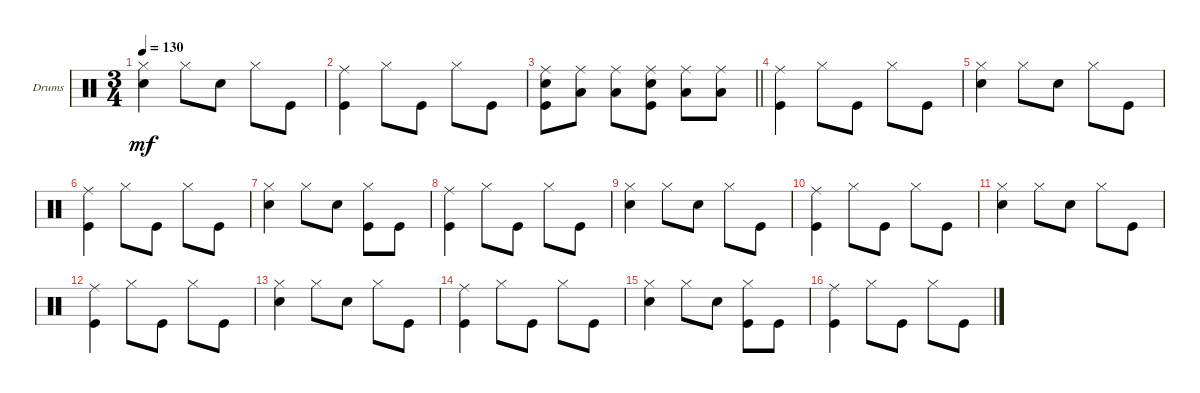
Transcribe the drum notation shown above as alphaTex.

\defaultSystemsLayout 4
\bracketExtendMode groupsimilarinstruments
\firstSystemTrackNameOrientation horizontal
\otherSystemsTrackNameOrientation horizontal
\chordDiagramsInScore
\track ("Drumkit" "Drums") {instrument percussion}
\staff {score}
\articulation defaults
\ts (3 4)
\tempo 130
\clef neutral
\ks c
("Hi-Hat (closed)" "Snare (hit) 2").4{dy mf} "Hi-Hat (closed)".8 "Snare (hit) 2".8 "Hi-Hat (closed)".8 "Kick (hit)".8 |
("Kick (hit)" "Ride (middle)").4 "Hi-Hat (closed)".8 "Kick (hit)".8 "Hi-Hat (closed)".8 "Kick (hit)".8 |
\barLineRight lightlight
("Snare (hit) 2" "Kick (hit)" "Ride (middle)").8 ("Ride (middle)" "Low Tom (hit)").8 ("Ride (middle)" "Low Tom (hit)").8 ("Kick (hit)" "Snare (hit) 2" "Ride (middle)").8 ("Ride (middle)" "Low Tom (hit)").8 ("Ride (middle)" "Low Tom (hit)").8 |
("Kick (hit)" "Ride (middle)").4 "Hi-Hat (closed)".8 "Kick (hit)".8 "Hi-Hat (closed)".8 "Kick (hit)".8 |
("Hi-Hat (closed)" "Snare (hit) 2").4 "Hi-Hat (closed)".8 "Snare (hit) 2".8 "Hi-Hat (closed)".8 "Kick (hit)".8 |
("Kick (hit)" "Ride (middle)").4 "Hi-Hat (closed)".8 "Kick (hit)".8 "Hi-Hat (closed)".8 "Kick (hit)".8 |
("Hi-Hat (closed)" "Snare (hit) 2").4 "Hi-Hat (closed)".8 "Snare (hit) 2".8 ("Kick (hit)" "Hi-Hat (closed)").8 "Kick (hit)".8 |
("Kick (hit)" "Ride (middle)").4 "Hi-Hat (closed)".8 "Kick (hit)".8 "Hi-Hat (closed)".8 "Kick (hit)".8 |
("Hi-Hat (closed)" "Snare (hit) 2").4 "Hi-Hat (closed)".8 "Snare (hit) 2".8 "Hi-Hat (closed)".8 "Kick (hit)".8 |
("Kick (hit)" "Ride (middle)").4 "Hi-Hat (closed)".8 "Kick (hit)".8 "Hi-Hat (closed)".8 "Kick (hit)".8 |
("Hi-Hat (closed)" "Snare (hit) 2").4 "Hi-Hat (closed)".8 "Snare (hit) 2".8 "Hi-Hat (closed)".8 "Kick (hit)".8 |
("Kick (hit)" "Ride (middle)").4 "Hi-Hat (closed)".8 "Kick (hit)".8 "Hi-Hat (closed)".8 "Kick (hit)".8 |
("Hi-Hat (closed)" "Snare (hit) 2").4 "Hi-Hat (closed)".8 "Snare (hit) 2".8 "Hi-Hat (closed)".8 "Kick (hit)".8 |
("Kick (hit)" "Ride (middle)").4 "Hi-Hat (closed)".8 "Kick (hit)".8 "Hi-Hat (closed)".8 "Kick (hit)".8 |
("Hi-Hat (closed)" "Snare (hit) 2").4 "Hi-Hat (closed)".8 "Snare (hit) 2".8 ("Kick (hit)" "Hi-Hat (closed)").8 "Kick (hit)".8 |
("Kick (hit)" "Ride (middle)").4 "Hi-Hat (closed)".8 "Kick (hit)".8 "Hi-Hat (closed)".8 "Kick (hit)".8
